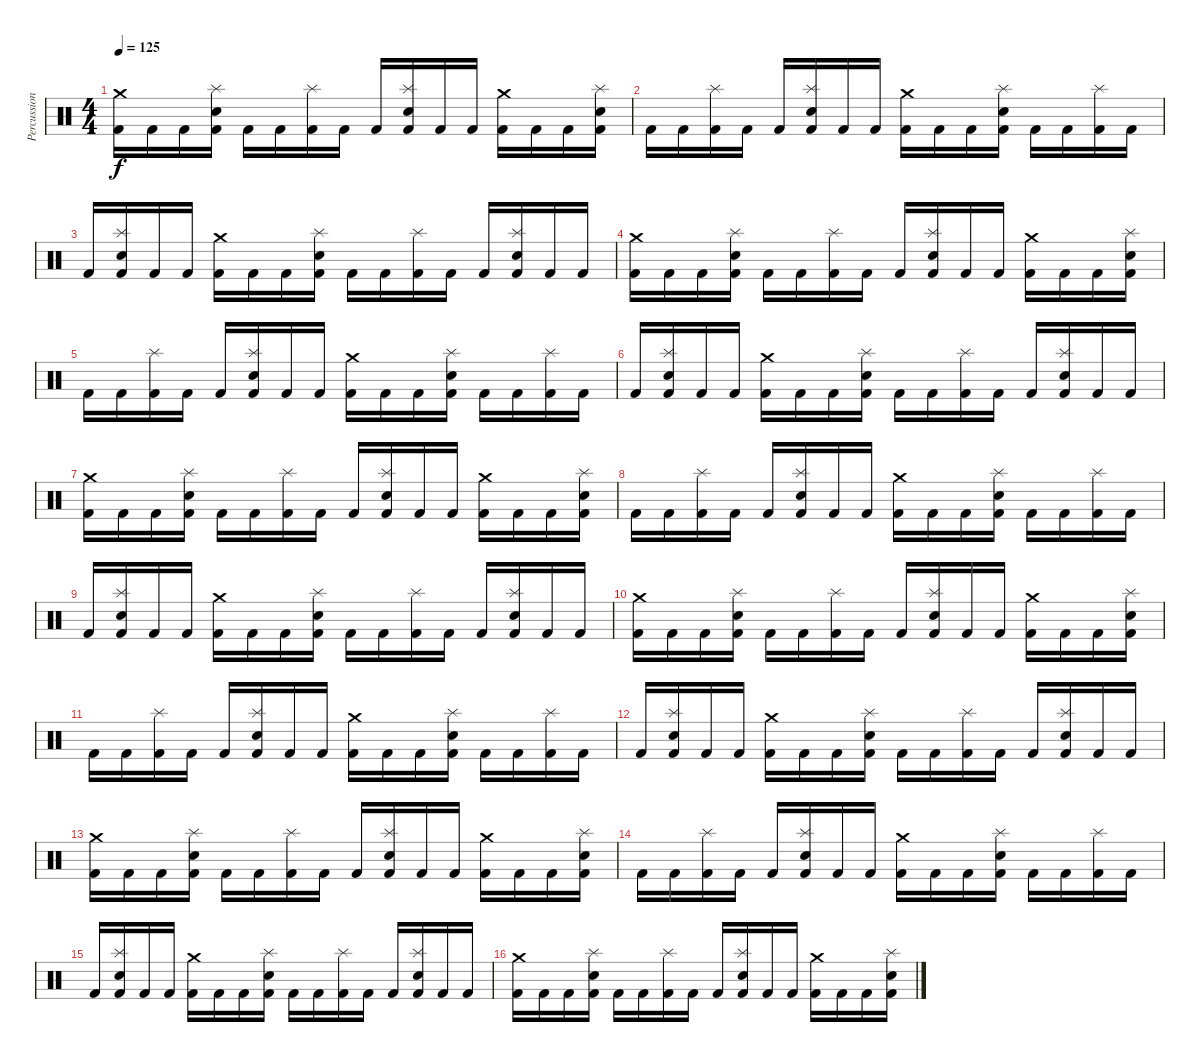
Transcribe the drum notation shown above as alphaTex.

\track ("Percussion" "Percussion") {instrument percussion}
\staff {score}
\articulation defaults
\ts (4 4)
\tempo 125
\clef neutral
\ks c
("Crash medium (hit)" "Kick (hit) 2").16{dy f} "Kick (hit) 2".16 "Kick (hit) 2".16 ("Splash (hit)" "Electric Snare (hit)" "Kick (hit) 2").16 "Kick (hit) 2".16 "Kick (hit) 2".16 ("Splash (hit)" "Kick (hit) 2").16 "Kick (hit) 2".16 "Kick (hit) 2".16 ("Splash (hit)" "Electric Snare (hit)" "Kick (hit) 2").16 "Kick (hit) 2".16 "Kick (hit) 2".16 ("Crash medium (hit)" "Kick (hit) 2").16 "Kick (hit) 2".16 "Kick (hit) 2".16 ("Splash (hit)" "Electric Snare (hit)" "Kick (hit) 2").16 |
"Kick (hit) 2".16 "Kick (hit) 2".16 ("Splash (hit)" "Kick (hit) 2").16 "Kick (hit) 2".16 "Kick (hit) 2".16 ("Splash (hit)" "Electric Snare (hit)" "Kick (hit) 2").16 "Kick (hit) 2".16 "Kick (hit) 2".16 ("Crash medium (hit)" "Kick (hit) 2").16 "Kick (hit) 2".16 "Kick (hit) 2".16 ("Splash (hit)" "Electric Snare (hit)" "Kick (hit) 2").16 "Kick (hit) 2".16 "Kick (hit) 2".16 ("Splash (hit)" "Kick (hit) 2").16 "Kick (hit) 2".16 |
"Kick (hit) 2".16 ("Splash (hit)" "Electric Snare (hit)" "Kick (hit) 2").16 "Kick (hit) 2".16 "Kick (hit) 2".16 ("Crash medium (hit)" "Kick (hit) 2").16 "Kick (hit) 2".16 "Kick (hit) 2".16 ("Splash (hit)" "Electric Snare (hit)" "Kick (hit) 2").16 "Kick (hit) 2".16 "Kick (hit) 2".16 ("Splash (hit)" "Kick (hit) 2").16 "Kick (hit) 2".16 "Kick (hit) 2".16 ("Splash (hit)" "Electric Snare (hit)" "Kick (hit) 2").16 "Kick (hit) 2".16 "Kick (hit) 2".16 |
("Crash medium (hit)" "Kick (hit) 2").16 "Kick (hit) 2".16 "Kick (hit) 2".16 ("Splash (hit)" "Electric Snare (hit)" "Kick (hit) 2").16 "Kick (hit) 2".16 "Kick (hit) 2".16 ("Splash (hit)" "Kick (hit) 2").16 "Kick (hit) 2".16 "Kick (hit) 2".16 ("Splash (hit)" "Electric Snare (hit)" "Kick (hit) 2").16 "Kick (hit) 2".16 "Kick (hit) 2".16 ("Crash medium (hit)" "Kick (hit) 2").16 "Kick (hit) 2".16 "Kick (hit) 2".16 ("Splash (hit)" "Electric Snare (hit)" "Kick (hit) 2").16 |
"Kick (hit) 2".16 "Kick (hit) 2".16 ("Splash (hit)" "Kick (hit) 2").16 "Kick (hit) 2".16 "Kick (hit) 2".16 ("Splash (hit)" "Electric Snare (hit)" "Kick (hit) 2").16 "Kick (hit) 2".16 "Kick (hit) 2".16 ("Crash medium (hit)" "Kick (hit) 2").16 "Kick (hit) 2".16 "Kick (hit) 2".16 ("Splash (hit)" "Electric Snare (hit)" "Kick (hit) 2").16 "Kick (hit) 2".16 "Kick (hit) 2".16 ("Splash (hit)" "Kick (hit) 2").16 "Kick (hit) 2".16 |
"Kick (hit) 2".16 ("Splash (hit)" "Electric Snare (hit)" "Kick (hit) 2").16 "Kick (hit) 2".16 "Kick (hit) 2".16 ("Crash medium (hit)" "Kick (hit) 2").16 "Kick (hit) 2".16 "Kick (hit) 2".16 ("Splash (hit)" "Electric Snare (hit)" "Kick (hit) 2").16 "Kick (hit) 2".16 "Kick (hit) 2".16 ("Splash (hit)" "Kick (hit) 2").16 "Kick (hit) 2".16 "Kick (hit) 2".16 ("Splash (hit)" "Electric Snare (hit)" "Kick (hit) 2").16 "Kick (hit) 2".16 "Kick (hit) 2".16 |
("Crash medium (hit)" "Kick (hit) 2").16 "Kick (hit) 2".16 "Kick (hit) 2".16 ("Splash (hit)" "Electric Snare (hit)" "Kick (hit) 2").16 "Kick (hit) 2".16 "Kick (hit) 2".16 ("Splash (hit)" "Kick (hit) 2").16 "Kick (hit) 2".16 "Kick (hit) 2".16 ("Splash (hit)" "Electric Snare (hit)" "Kick (hit) 2").16 "Kick (hit) 2".16 "Kick (hit) 2".16 ("Crash medium (hit)" "Kick (hit) 2").16 "Kick (hit) 2".16 "Kick (hit) 2".16 ("Splash (hit)" "Electric Snare (hit)" "Kick (hit) 2").16 |
"Kick (hit) 2".16 "Kick (hit) 2".16 ("Splash (hit)" "Kick (hit) 2").16 "Kick (hit) 2".16 "Kick (hit) 2".16 ("Splash (hit)" "Electric Snare (hit)" "Kick (hit) 2").16 "Kick (hit) 2".16 "Kick (hit) 2".16 ("Crash medium (hit)" "Kick (hit) 2").16 "Kick (hit) 2".16 "Kick (hit) 2".16 ("Splash (hit)" "Electric Snare (hit)" "Kick (hit) 2").16 "Kick (hit) 2".16 "Kick (hit) 2".16 ("Splash (hit)" "Kick (hit) 2").16 "Kick (hit) 2".16 |
"Kick (hit) 2".16 ("Splash (hit)" "Electric Snare (hit)" "Kick (hit) 2").16 "Kick (hit) 2".16 "Kick (hit) 2".16 ("Crash medium (hit)" "Kick (hit) 2").16 "Kick (hit) 2".16 "Kick (hit) 2".16 ("Splash (hit)" "Electric Snare (hit)" "Kick (hit) 2").16 "Kick (hit) 2".16 "Kick (hit) 2".16 ("Splash (hit)" "Kick (hit) 2").16 "Kick (hit) 2".16 "Kick (hit) 2".16 ("Splash (hit)" "Electric Snare (hit)" "Kick (hit) 2").16 "Kick (hit) 2".16 "Kick (hit) 2".16 |
("Crash medium (hit)" "Kick (hit) 2").16 "Kick (hit) 2".16 "Kick (hit) 2".16 ("Splash (hit)" "Electric Snare (hit)" "Kick (hit) 2").16 "Kick (hit) 2".16 "Kick (hit) 2".16 ("Splash (hit)" "Kick (hit) 2").16 "Kick (hit) 2".16 "Kick (hit) 2".16 ("Splash (hit)" "Electric Snare (hit)" "Kick (hit) 2").16 "Kick (hit) 2".16 "Kick (hit) 2".16 ("Crash medium (hit)" "Kick (hit) 2").16 "Kick (hit) 2".16 "Kick (hit) 2".16 ("Splash (hit)" "Electric Snare (hit)" "Kick (hit) 2").16 |
"Kick (hit) 2".16 "Kick (hit) 2".16 ("Splash (hit)" "Kick (hit) 2").16 "Kick (hit) 2".16 "Kick (hit) 2".16 ("Splash (hit)" "Electric Snare (hit)" "Kick (hit) 2").16 "Kick (hit) 2".16 "Kick (hit) 2".16 ("Crash medium (hit)" "Kick (hit) 2").16 "Kick (hit) 2".16 "Kick (hit) 2".16 ("Splash (hit)" "Electric Snare (hit)" "Kick (hit) 2").16 "Kick (hit) 2".16 "Kick (hit) 2".16 ("Splash (hit)" "Kick (hit) 2").16 "Kick (hit) 2".16 |
"Kick (hit) 2".16 ("Splash (hit)" "Electric Snare (hit)" "Kick (hit) 2").16 "Kick (hit) 2".16 "Kick (hit) 2".16 ("Crash medium (hit)" "Kick (hit) 2").16 "Kick (hit) 2".16 "Kick (hit) 2".16 ("Splash (hit)" "Electric Snare (hit)" "Kick (hit) 2").16 "Kick (hit) 2".16 "Kick (hit) 2".16 ("Splash (hit)" "Kick (hit) 2").16 "Kick (hit) 2".16 "Kick (hit) 2".16 ("Splash (hit)" "Electric Snare (hit)" "Kick (hit) 2").16 "Kick (hit) 2".16 "Kick (hit) 2".16 |
("Crash medium (hit)" "Kick (hit) 2").16 "Kick (hit) 2".16 "Kick (hit) 2".16 ("Splash (hit)" "Electric Snare (hit)" "Kick (hit) 2").16 "Kick (hit) 2".16 "Kick (hit) 2".16 ("Splash (hit)" "Kick (hit) 2").16 "Kick (hit) 2".16 "Kick (hit) 2".16 ("Splash (hit)" "Electric Snare (hit)" "Kick (hit) 2").16 "Kick (hit) 2".16 "Kick (hit) 2".16 ("Crash medium (hit)" "Kick (hit) 2").16 "Kick (hit) 2".16 "Kick (hit) 2".16 ("Splash (hit)" "Electric Snare (hit)" "Kick (hit) 2").16 |
"Kick (hit) 2".16 "Kick (hit) 2".16 ("Splash (hit)" "Kick (hit) 2").16 "Kick (hit) 2".16 "Kick (hit) 2".16 ("Splash (hit)" "Electric Snare (hit)" "Kick (hit) 2").16 "Kick (hit) 2".16 "Kick (hit) 2".16 ("Crash medium (hit)" "Kick (hit) 2").16 "Kick (hit) 2".16 "Kick (hit) 2".16 ("Splash (hit)" "Electric Snare (hit)" "Kick (hit) 2").16 "Kick (hit) 2".16 "Kick (hit) 2".16 ("Splash (hit)" "Kick (hit) 2").16 "Kick (hit) 2".16 |
"Kick (hit) 2".16 ("Splash (hit)" "Electric Snare (hit)" "Kick (hit) 2").16 "Kick (hit) 2".16 "Kick (hit) 2".16 ("Crash medium (hit)" "Kick (hit) 2").16 "Kick (hit) 2".16 "Kick (hit) 2".16 ("Splash (hit)" "Electric Snare (hit)" "Kick (hit) 2").16 "Kick (hit) 2".16 "Kick (hit) 2".16 ("Splash (hit)" "Kick (hit) 2").16 "Kick (hit) 2".16 "Kick (hit) 2".16 ("Splash (hit)" "Electric Snare (hit)" "Kick (hit) 2").16 "Kick (hit) 2".16 "Kick (hit) 2".16 |
("Crash medium (hit)" "Kick (hit) 2").16 "Kick (hit) 2".16 "Kick (hit) 2".16 ("Splash (hit)" "Electric Snare (hit)" "Kick (hit) 2").16 "Kick (hit) 2".16 "Kick (hit) 2".16 ("Splash (hit)" "Kick (hit) 2").16 "Kick (hit) 2".16 "Kick (hit) 2".16 ("Splash (hit)" "Electric Snare (hit)" "Kick (hit) 2").16 "Kick (hit) 2".16 "Kick (hit) 2".16 ("Crash medium (hit)" "Kick (hit) 2").16 "Kick (hit) 2".16 "Kick (hit) 2".16 ("Splash (hit)" "Electric Snare (hit)" "Kick (hit) 2").16
